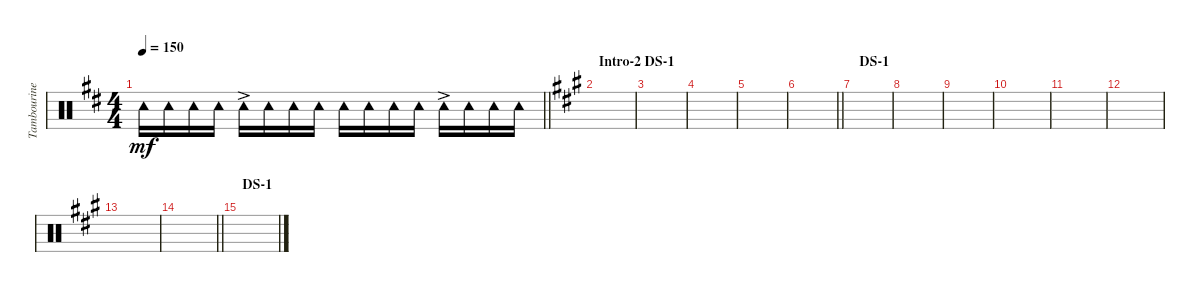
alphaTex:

\track ("Tambourine" "Tambourine") {instrument percussion}
\staff {score}
\articulation defaults
\ts (4 4)
\tempo 150
\clef neutral
\barLineRight lightlight
\ks d "Tambourine (hit)".16{dy mf} "Tambourine (hit)".16 "Tambourine (hit)".16 "Tambourine (hit)".16 "Tambourine (hit)"{ac}.16 "Tambourine (hit)".16 "Tambourine (hit)".16 "Tambourine (hit)".16 "Tambourine (hit)".16 "Tambourine (hit)".16 "Tambourine (hit)".16 "Tambourine (hit)".16 "Tambourine (hit)"{ac}.16 "Tambourine (hit)".16 "Tambourine (hit)".16 "Tambourine (hit)".16
|
\section ("" "Intro-2 DS-1")
\ks a
|
|
|
|
\barLineRight lightlight
|
\section ("" " DS-1")
|
|
|
|
|
|
|
\barLineRight lightlight
|
\section ("" "DS-1")
